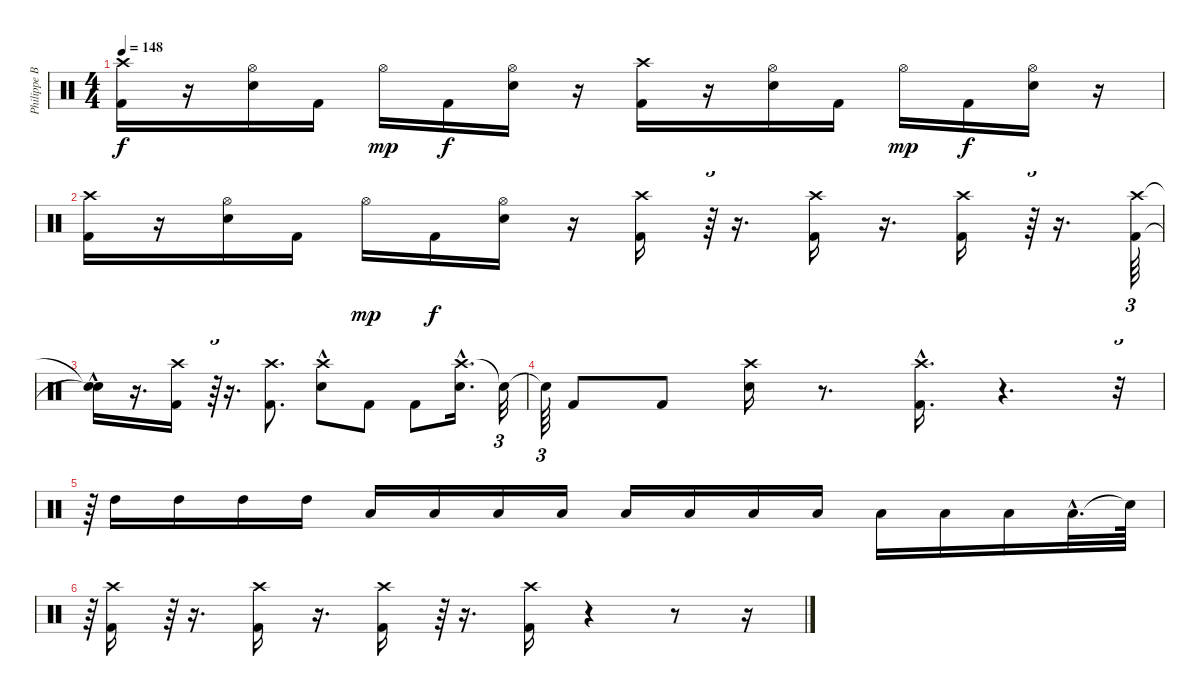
\track ("Philippe Borda" "Philippe B") {instrument percussion}
\staff {score}
\articulation defaults
\ts (4 4)
\tempo 148
\clef neutral
\ks c
("Crash high (hit)" "Kick (hit) 2").16{dy f} r.16 ("Hi-Hat (open)" "Snare (hit) 2").16 "Kick (hit) 2".16 "Hi-Hat (open)".16{dy mp} "Kick (hit) 2".16{dy f} ("Hi-Hat (open)" "Snare (hit) 2").16 r.16 ("Crash high (hit)" "Kick (hit) 2").16 r.16 ("Hi-Hat (open)" "Snare (hit) 2").16 "Kick (hit) 2".16 "Hi-Hat (open)".16{dy mp} "Kick (hit) 2".16{dy f} ("Hi-Hat (open)" "Snare (hit) 2").16 r.16 |
("Crash high (hit)" "Kick (hit) 2").16 r.16 ("Snare (hit) 2" "Hi-Hat (open)").16 "Kick (hit) 2".16 "Hi-Hat (open)".16{dy mp} "Kick (hit) 2".16{dy f} ("Snare (hit) 2" "Hi-Hat (open)").16 r.16 ("Crash high (hit)" "Kick (hit) 2").16 r.64{tu (3 2)} r.16{d} ("Kick (hit) 2" "Crash high (hit)").16 r.16{d} ("Crash high (hit)" "Kick (hit) 2").16 r.64{tu (3 2)} r.16{d} ("Crash high (hit)" "Kick (hit) 2").64{tu (3 2)} |
("Snare (hit)"{t} "Snare (hit)"{hac t}).16 r.16{d} ("Crash high (hit)" "Kick (hit) 2").16 r.64{tu (3 2)} r.16{d} ("Kick (hit) 2" "Crash high (hit)").8{d} ("Crash high (hit)"{hac} "Snare (hit) 2").8 "Kick (hit) 2".8 "Kick (hit) 2".8 ("Crash high (hit)"{hac} "Snare (hit) 2").16{d} "Snare (hit)"{t}.32{tu (3 2)} |
"Snare (hit)"{t}.64{tu (3 2)} "Kick (hit) 2".8 "Kick (hit) 2".8 ("Snare (hit) 2" "Crash high (hit)").16 r.8{d} ("Crash high (hit)"{hac} "Kick (hit) 2").16{d} r.4{d} r.32{tu (3 2)} |
r.64{tu (3 2)} "High Tom (hit)".16 "High Tom (hit)".16 "High Tom (hit)".16 "High Tom (hit)".16 "Low Tom (hit)".16 "Low Tom (hit)".16 "Low Tom (hit)".16 "Low Tom (hit)".16 "Low Floor Tom (hit)".16 "Low Floor Tom (hit)".16 "Low Floor Tom (hit)".16 "Low Floor Tom (hit)".16 "Low Floor Tom (hit)".16 "Low Floor Tom (hit)".16 "Low Floor Tom (hit)".16 "Low Floor Tom (hit)"{hac}.32{d} "Snare (hit)"{t}.64 |
r.64{tu (3 2)} ("Crash high (hit)" "Kick (hit) 2").16 r.64{tu (3 2)} r.16{d} ("Kick (hit) 2" "Crash high (hit)").16 r.16{d} ("Crash high (hit)" "Kick (hit) 2").16 r.64{tu (3 2)} r.16{d} ("Kick (hit) 2" "Crash high (hit)").16 r.4 r.8 r.16
